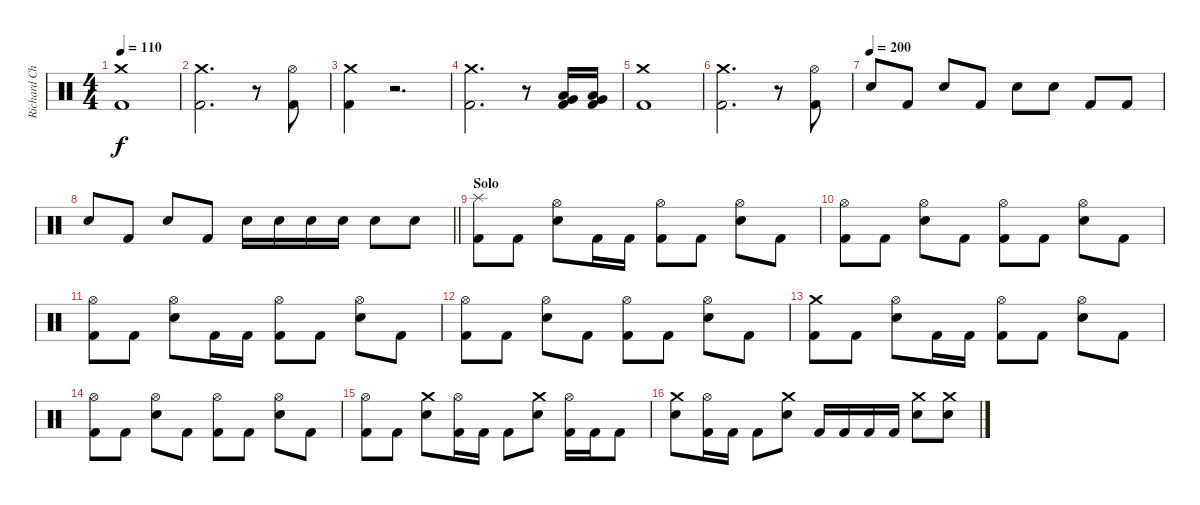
\track ("Richard Christy" "Richard Ch") {instrument percussion}
\staff {score}
\articulation defaults
\ts (4 4)
\tempo 110
\clef neutral
\ks c
("Crash medium (hit)" "Kick (hit) 2").1{dy f} |
("Crash medium (hit)" "Kick (hit) 2").2{d} r.8 ("Hi-Hat (open)" "Kick (hit) 2").8 |
("Crash medium (hit)" "Kick (hit) 2").4 r.2{d} |
("Crash medium (hit)" "Kick (hit) 2").2{d} r.8 ("Very Low Tom (hit)" "Low Floor Tom (hit)" "Kick (hit) 2").16 ("Very Low Tom (hit)" "Low Floor Tom (hit)" "Kick (hit) 2").16 |
("Crash medium (hit)" "Kick (hit) 2").1 |
("Crash medium (hit)" "Kick (hit) 2").2{d} r.8 ("Hi-Hat (open)" "Kick (hit) 2").8 |
\tempo (200)
"Electric Snare (hit)".8 "Kick (hit) 2".8 "Electric Snare (hit)".8 "Kick (hit) 2".8 "Electric Snare (hit)".8 "Electric Snare (hit)".8 "Kick (hit) 2".8 "Kick (hit) 2".8 |
\barLineRight lightlight "Electric Snare (hit)".8 "Kick (hit) 2".8 "Electric Snare (hit)".8 "Kick (hit) 2".8 "Electric Snare (hit)".16 "Electric Snare (hit)".16 "Electric Snare (hit)".16 "Electric Snare (hit)".16 "Electric Snare (hit)".8 "Electric Snare (hit)".8
|
\section ("" "Solo")
("Splash (hit)" "Kick (hit) 2").8 "Kick (hit) 2".8 ("Hi-Hat (open)" "Electric Snare (hit)").8 "Kick (hit) 2".16 "Kick (hit) 2".16 ("Hi-Hat (open)" "Kick (hit) 2").8 "Kick (hit) 2".8 ("Hi-Hat (open)" "Electric Snare (hit)").8 "Kick (hit) 2".8 |
("Hi-Hat (open)" "Kick (hit) 2").8 "Kick (hit) 2".8 ("Hi-Hat (open)" "Electric Snare (hit)").8 "Kick (hit) 2".8 ("Hi-Hat (open)" "Kick (hit) 2").8 "Kick (hit) 2".8 ("Hi-Hat (open)" "Electric Snare (hit)").8 "Kick (hit) 2".8 |
("Hi-Hat (open)" "Kick (hit) 2").8 "Kick (hit) 2".8 ("Hi-Hat (open)" "Electric Snare (hit)").8 "Kick (hit) 2".16 "Kick (hit) 2".16 ("Hi-Hat (open)" "Kick (hit) 2").8 "Kick (hit) 2".8 ("Hi-Hat (open)" "Electric Snare (hit)").8 "Kick (hit) 2".8 |
("Hi-Hat (open)" "Kick (hit) 2").8 "Kick (hit) 2".8 ("Hi-Hat (open)" "Electric Snare (hit)").8 "Kick (hit) 2".8 ("Hi-Hat (open)" "Kick (hit) 2").8 "Kick (hit) 2".8 ("Hi-Hat (open)" "Electric Snare (hit)").8 "Kick (hit) 2".8 |
("Crash medium (hit)" "Kick (hit) 2").8 "Kick (hit) 2".8 ("Hi-Hat (open)" "Electric Snare (hit)").8 "Kick (hit) 2".16 "Kick (hit) 2".16 ("Hi-Hat (open)" "Kick (hit) 2").8 "Kick (hit) 2".8 ("Hi-Hat (open)" "Electric Snare (hit)").8 "Kick (hit) 2".8 |
("Hi-Hat (open)" "Kick (hit) 2").8 "Kick (hit) 2".8 ("Hi-Hat (open)" "Electric Snare (hit)").8 "Kick (hit) 2".8 ("Hi-Hat (open)" "Kick (hit) 2").8 "Kick (hit) 2".8 ("Hi-Hat (open)" "Electric Snare (hit)").8 "Kick (hit) 2".8 |
("Hi-Hat (open)" "Kick (hit) 2").8 "Kick (hit) 2".8 ("Crash medium (hit)" "Electric Snare (hit)").8 ("Hi-Hat (open)" "Kick (hit) 2").16 "Kick (hit) 2".16 "Kick (hit) 2".8 ("Crash medium (hit)" "Electric Snare (hit)").8 ("Hi-Hat (open)" "Kick (hit) 2").16 "Kick (hit) 2".16 "Kick (hit) 2".8 |
("Crash medium (hit)" "Electric Snare (hit)").8 ("Hi-Hat (open)" "Kick (hit) 2").16 "Kick (hit) 2".16 "Kick (hit) 2".8 ("Crash medium (hit)" "Electric Snare (hit)").8 "Kick (hit) 2".16 "Kick (hit) 2".16 "Kick (hit) 2".16 "Kick (hit) 2".16 ("Crash medium (hit)" "Electric Snare (hit)").8 ("Crash medium (hit)" "Electric Snare (hit)").8
